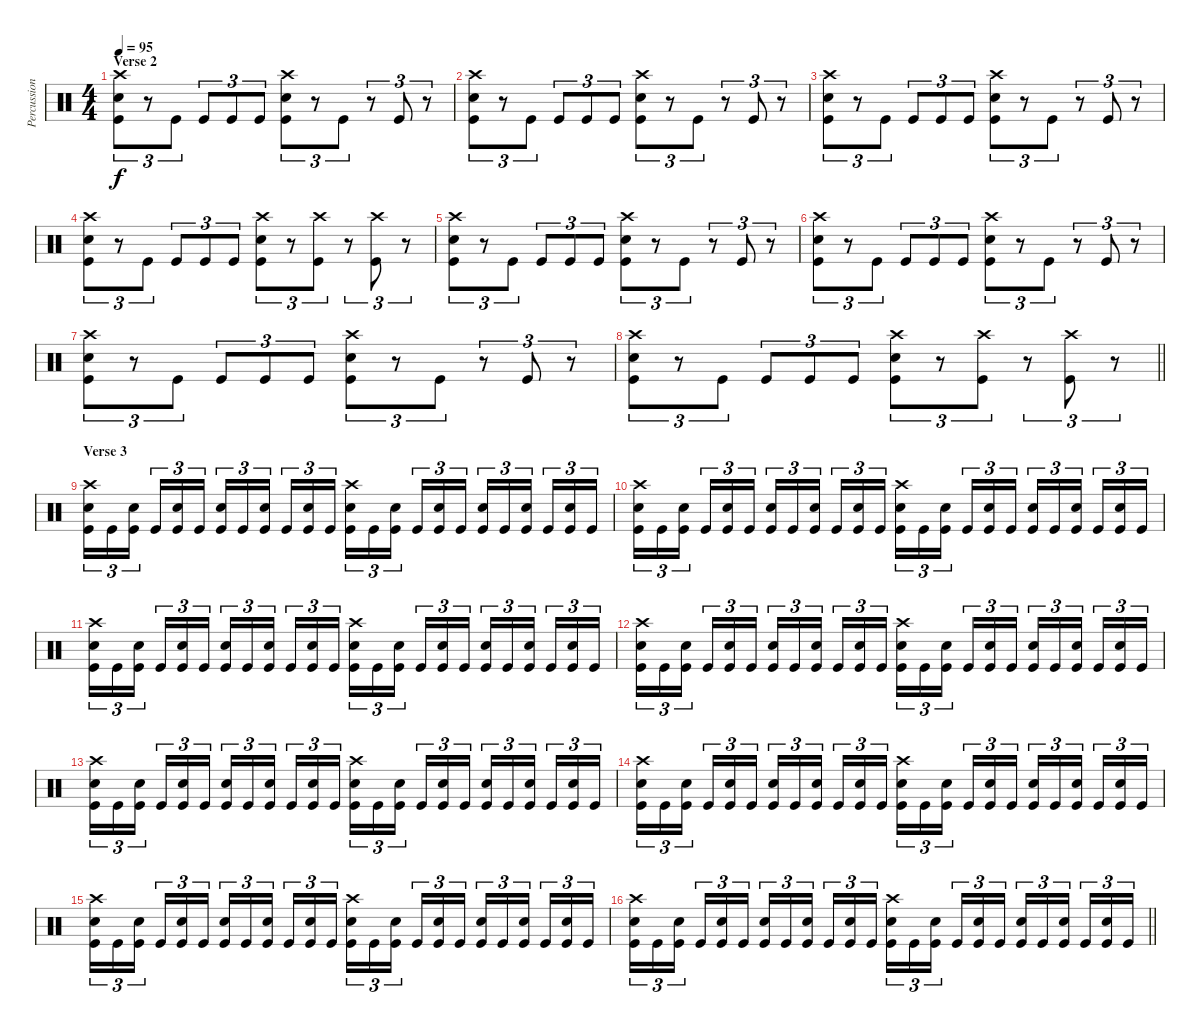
\track ("Percussion" "Percussion") {instrument percussion}
\staff {score}
\articulation defaults
\ts (4 4)
\section ("" "Verse 2")
\tempo 95
\clef neutral
\ks c
("Crash high (hit)" "Snare (hit) 2" "Kick (hit)").8{tu (3 2) dy f} r.8{tu (3 2)} "Kick (hit)".8{tu (3 2)} "Kick (hit)".8{tu (3 2)} "Kick (hit)".8{tu (3 2)} "Kick (hit)".8{tu (3 2)} ("Crash high (hit)" "Snare (hit) 2" "Kick (hit)").8{tu (3 2)} r.8{tu (3 2)} "Kick (hit)".8{tu (3 2)} r.8{tu (3 2)} "Kick (hit)".8{tu (3 2)} r.8{tu (3 2)} |
("Crash high (hit)" "Snare (hit) 2" "Kick (hit)").8{tu (3 2)} r.8{tu (3 2)} "Kick (hit)".8{tu (3 2)} "Kick (hit)".8{tu (3 2)} "Kick (hit)".8{tu (3 2)} "Kick (hit)".8{tu (3 2)} ("Crash high (hit)" "Snare (hit) 2" "Kick (hit)").8{tu (3 2)} r.8{tu (3 2)} "Kick (hit)".8{tu (3 2)} r.8{tu (3 2)} "Kick (hit)".8{tu (3 2)} r.8{tu (3 2)} |
("Crash high (hit)" "Snare (hit) 2" "Kick (hit)").8{tu (3 2)} r.8{tu (3 2)} "Kick (hit)".8{tu (3 2)} "Kick (hit)".8{tu (3 2)} "Kick (hit)".8{tu (3 2)} "Kick (hit)".8{tu (3 2)} ("Crash high (hit)" "Snare (hit) 2" "Kick (hit)").8{tu (3 2)} r.8{tu (3 2)} "Kick (hit)".8{tu (3 2)} r.8{tu (3 2)} "Kick (hit)".8{tu (3 2)} r.8{tu (3 2)} |
("Crash high (hit)" "Snare (hit) 2" "Kick (hit)").8{tu (3 2)} r.8{tu (3 2)} "Kick (hit)".8{tu (3 2)} "Kick (hit)".8{tu (3 2)} "Kick (hit)".8{tu (3 2)} "Kick (hit)".8{tu (3 2)} ("Crash high (hit)" "Snare (hit) 2" "Kick (hit)").8{tu (3 2)} r.8{tu (3 2)} ("Crash high (hit)" "Kick (hit)").8{tu (3 2)} r.8{tu (3 2)} ("Crash high (hit)" "Kick (hit)").8{tu (3 2)} r.8{tu (3 2)} |
("Crash high (hit)" "Snare (hit) 2" "Kick (hit)").8{tu (3 2)} r.8{tu (3 2)} "Kick (hit)".8{tu (3 2)} "Kick (hit)".8{tu (3 2)} "Kick (hit)".8{tu (3 2)} "Kick (hit)".8{tu (3 2)} ("Crash high (hit)" "Snare (hit) 2" "Kick (hit)").8{tu (3 2)} r.8{tu (3 2)} "Kick (hit)".8{tu (3 2)} r.8{tu (3 2)} "Kick (hit)".8{tu (3 2)} r.8{tu (3 2)} |
("Crash high (hit)" "Snare (hit) 2" "Kick (hit)").8{tu (3 2)} r.8{tu (3 2)} "Kick (hit)".8{tu (3 2)} "Kick (hit)".8{tu (3 2)} "Kick (hit)".8{tu (3 2)} "Kick (hit)".8{tu (3 2)} ("Crash high (hit)" "Snare (hit) 2" "Kick (hit)").8{tu (3 2)} r.8{tu (3 2)} "Kick (hit)".8{tu (3 2)} r.8{tu (3 2)} "Kick (hit)".8{tu (3 2)} r.8{tu (3 2)} |
("Crash high (hit)" "Snare (hit) 2" "Kick (hit)").8{tu (3 2)} r.8{tu (3 2)} "Kick (hit)".8{tu (3 2)} "Kick (hit)".8{tu (3 2)} "Kick (hit)".8{tu (3 2)} "Kick (hit)".8{tu (3 2)} ("Crash high (hit)" "Snare (hit) 2" "Kick (hit)").8{tu (3 2)} r.8{tu (3 2)} "Kick (hit)".8{tu (3 2)} r.8{tu (3 2)} "Kick (hit)".8{tu (3 2)} r.8{tu (3 2)} |
\barLineRight lightlight
("Crash high (hit)" "Snare (hit) 2" "Kick (hit)").8{tu (3 2)} r.8{tu (3 2)} "Kick (hit)".8{tu (3 2)} "Kick (hit)".8{tu (3 2)} "Kick (hit)".8{tu (3 2)} "Kick (hit)".8{tu (3 2)} ("Crash high (hit)" "Snare (hit) 2" "Kick (hit)").8{tu (3 2)} r.8{tu (3 2)} ("Crash high (hit)" "Kick (hit)").8{tu (3 2)} r.8{tu (3 2)} ("Crash high (hit)" "Kick (hit)").8{tu (3 2)} r.8{tu (3 2)} |
\section ("" "Verse 3")
("Crash high (hit)" "Snare (hit) 2" "Kick (hit)").16{tu (3 2)} "Kick (hit)".16{tu (3 2)} ("Snare (hit) 2" "Kick (hit)").16{tu (3 2) beam splitsecondary} "Kick (hit)".16{tu (3 2)} ("Snare (hit) 2" "Kick (hit)").16{tu (3 2)} "Kick (hit)".16{tu (3 2)} ("Snare (hit) 2" "Kick (hit)").16{tu (3 2)} "Kick (hit)".16{tu (3 2)} ("Snare (hit) 2" "Kick (hit)").16{tu (3 2) beam splitsecondary} "Kick (hit)".16{tu (3 2)} ("Snare (hit) 2" "Kick (hit)").16{tu (3 2)} "Kick (hit)".16{tu (3 2)} ("Crash high (hit)" "Snare (hit) 2" "Kick (hit)").16{tu (3 2)} "Kick (hit)".16{tu (3 2)} ("Snare (hit) 2" "Kick (hit)").16{tu (3 2) beam splitsecondary} "Kick (hit)".16{tu (3 2)} ("Snare (hit) 2" "Kick (hit)").16{tu (3 2)} "Kick (hit)".16{tu (3 2)} ("Snare (hit) 2" "Kick (hit)").16{tu (3 2)} "Kick (hit)".16{tu (3 2)} ("Snare (hit) 2" "Kick (hit)").16{tu (3 2) beam splitsecondary} "Kick (hit)".16{tu (3 2)} ("Snare (hit) 2" "Kick (hit)").16{tu (3 2)} "Kick (hit)".16{tu (3 2)} |
("Crash high (hit)" "Snare (hit) 2" "Kick (hit)").16{tu (3 2)} "Kick (hit)".16{tu (3 2)} ("Snare (hit) 2" "Kick (hit)").16{tu (3 2) beam splitsecondary} "Kick (hit)".16{tu (3 2)} ("Snare (hit) 2" "Kick (hit)").16{tu (3 2)} "Kick (hit)".16{tu (3 2)} ("Snare (hit) 2" "Kick (hit)").16{tu (3 2)} "Kick (hit)".16{tu (3 2)} ("Snare (hit) 2" "Kick (hit)").16{tu (3 2) beam splitsecondary} "Kick (hit)".16{tu (3 2)} ("Snare (hit) 2" "Kick (hit)").16{tu (3 2)} "Kick (hit)".16{tu (3 2)} ("Crash high (hit)" "Snare (hit) 2" "Kick (hit)").16{tu (3 2)} "Kick (hit)".16{tu (3 2)} ("Snare (hit) 2" "Kick (hit)").16{tu (3 2) beam splitsecondary} "Kick (hit)".16{tu (3 2)} ("Snare (hit) 2" "Kick (hit)").16{tu (3 2)} "Kick (hit)".16{tu (3 2)} ("Snare (hit) 2" "Kick (hit)").16{tu (3 2)} "Kick (hit)".16{tu (3 2)} ("Snare (hit) 2" "Kick (hit)").16{tu (3 2) beam splitsecondary} "Kick (hit)".16{tu (3 2)} ("Snare (hit) 2" "Kick (hit)").16{tu (3 2)} "Kick (hit)".16{tu (3 2)} |
("Crash high (hit)" "Snare (hit) 2" "Kick (hit)").16{tu (3 2)} "Kick (hit)".16{tu (3 2)} ("Snare (hit) 2" "Kick (hit)").16{tu (3 2) beam splitsecondary} "Kick (hit)".16{tu (3 2)} ("Snare (hit) 2" "Kick (hit)").16{tu (3 2)} "Kick (hit)".16{tu (3 2)} ("Snare (hit) 2" "Kick (hit)").16{tu (3 2)} "Kick (hit)".16{tu (3 2)} ("Snare (hit) 2" "Kick (hit)").16{tu (3 2) beam splitsecondary} "Kick (hit)".16{tu (3 2)} ("Snare (hit) 2" "Kick (hit)").16{tu (3 2)} "Kick (hit)".16{tu (3 2)} ("Crash high (hit)" "Snare (hit) 2" "Kick (hit)").16{tu (3 2)} "Kick (hit)".16{tu (3 2)} ("Snare (hit) 2" "Kick (hit)").16{tu (3 2) beam splitsecondary} "Kick (hit)".16{tu (3 2)} ("Snare (hit) 2" "Kick (hit)").16{tu (3 2)} "Kick (hit)".16{tu (3 2)} ("Snare (hit) 2" "Kick (hit)").16{tu (3 2)} "Kick (hit)".16{tu (3 2)} ("Snare (hit) 2" "Kick (hit)").16{tu (3 2) beam splitsecondary} "Kick (hit)".16{tu (3 2)} ("Snare (hit) 2" "Kick (hit)").16{tu (3 2)} "Kick (hit)".16{tu (3 2)} |
("Crash high (hit)" "Snare (hit) 2" "Kick (hit)").16{tu (3 2)} "Kick (hit)".16{tu (3 2)} ("Snare (hit) 2" "Kick (hit)").16{tu (3 2) beam splitsecondary} "Kick (hit)".16{tu (3 2)} ("Snare (hit) 2" "Kick (hit)").16{tu (3 2)} "Kick (hit)".16{tu (3 2)} ("Snare (hit) 2" "Kick (hit)").16{tu (3 2)} "Kick (hit)".16{tu (3 2)} ("Snare (hit) 2" "Kick (hit)").16{tu (3 2) beam splitsecondary} "Kick (hit)".16{tu (3 2)} ("Snare (hit) 2" "Kick (hit)").16{tu (3 2)} "Kick (hit)".16{tu (3 2)} ("Crash high (hit)" "Snare (hit) 2" "Kick (hit)").16{tu (3 2)} "Kick (hit)".16{tu (3 2)} ("Snare (hit) 2" "Kick (hit)").16{tu (3 2) beam splitsecondary} "Kick (hit)".16{tu (3 2)} ("Snare (hit) 2" "Kick (hit)").16{tu (3 2)} "Kick (hit)".16{tu (3 2)} ("Snare (hit) 2" "Kick (hit)").16{tu (3 2)} "Kick (hit)".16{tu (3 2)} ("Snare (hit) 2" "Kick (hit)").16{tu (3 2) beam splitsecondary} "Kick (hit)".16{tu (3 2)} ("Snare (hit) 2" "Kick (hit)").16{tu (3 2)} "Kick (hit)".16{tu (3 2)} |
("Crash high (hit)" "Snare (hit) 2" "Kick (hit)").16{tu (3 2)} "Kick (hit)".16{tu (3 2)} ("Snare (hit) 2" "Kick (hit)").16{tu (3 2) beam splitsecondary} "Kick (hit)".16{tu (3 2)} ("Snare (hit) 2" "Kick (hit)").16{tu (3 2)} "Kick (hit)".16{tu (3 2)} ("Snare (hit) 2" "Kick (hit)").16{tu (3 2)} "Kick (hit)".16{tu (3 2)} ("Snare (hit) 2" "Kick (hit)").16{tu (3 2) beam splitsecondary} "Kick (hit)".16{tu (3 2)} ("Snare (hit) 2" "Kick (hit)").16{tu (3 2)} "Kick (hit)".16{tu (3 2)} ("Crash high (hit)" "Snare (hit) 2" "Kick (hit)").16{tu (3 2)} "Kick (hit)".16{tu (3 2)} ("Snare (hit) 2" "Kick (hit)").16{tu (3 2) beam splitsecondary} "Kick (hit)".16{tu (3 2)} ("Snare (hit) 2" "Kick (hit)").16{tu (3 2)} "Kick (hit)".16{tu (3 2)} ("Snare (hit) 2" "Kick (hit)").16{tu (3 2)} "Kick (hit)".16{tu (3 2)} ("Snare (hit) 2" "Kick (hit)").16{tu (3 2) beam splitsecondary} "Kick (hit)".16{tu (3 2)} ("Snare (hit) 2" "Kick (hit)").16{tu (3 2)} "Kick (hit)".16{tu (3 2)} |
("Crash high (hit)" "Snare (hit) 2" "Kick (hit)").16{tu (3 2)} "Kick (hit)".16{tu (3 2)} ("Snare (hit) 2" "Kick (hit)").16{tu (3 2) beam splitsecondary} "Kick (hit)".16{tu (3 2)} ("Snare (hit) 2" "Kick (hit)").16{tu (3 2)} "Kick (hit)".16{tu (3 2)} ("Snare (hit) 2" "Kick (hit)").16{tu (3 2)} "Kick (hit)".16{tu (3 2)} ("Snare (hit) 2" "Kick (hit)").16{tu (3 2) beam splitsecondary} "Kick (hit)".16{tu (3 2)} ("Snare (hit) 2" "Kick (hit)").16{tu (3 2)} "Kick (hit)".16{tu (3 2)} ("Crash high (hit)" "Snare (hit) 2" "Kick (hit)").16{tu (3 2)} "Kick (hit)".16{tu (3 2)} ("Snare (hit) 2" "Kick (hit)").16{tu (3 2) beam splitsecondary} "Kick (hit)".16{tu (3 2)} ("Snare (hit) 2" "Kick (hit)").16{tu (3 2)} "Kick (hit)".16{tu (3 2)} ("Snare (hit) 2" "Kick (hit)").16{tu (3 2)} "Kick (hit)".16{tu (3 2)} ("Snare (hit) 2" "Kick (hit)").16{tu (3 2) beam splitsecondary} "Kick (hit)".16{tu (3 2)} ("Snare (hit) 2" "Kick (hit)").16{tu (3 2)} "Kick (hit)".16{tu (3 2)} |
("Crash high (hit)" "Snare (hit) 2" "Kick (hit)").16{tu (3 2)} "Kick (hit)".16{tu (3 2)} ("Snare (hit) 2" "Kick (hit)").16{tu (3 2) beam splitsecondary} "Kick (hit)".16{tu (3 2)} ("Snare (hit) 2" "Kick (hit)").16{tu (3 2)} "Kick (hit)".16{tu (3 2)} ("Snare (hit) 2" "Kick (hit)").16{tu (3 2)} "Kick (hit)".16{tu (3 2)} ("Snare (hit) 2" "Kick (hit)").16{tu (3 2) beam splitsecondary} "Kick (hit)".16{tu (3 2)} ("Snare (hit) 2" "Kick (hit)").16{tu (3 2)} "Kick (hit)".16{tu (3 2)} ("Crash high (hit)" "Snare (hit) 2" "Kick (hit)").16{tu (3 2)} "Kick (hit)".16{tu (3 2)} ("Snare (hit) 2" "Kick (hit)").16{tu (3 2) beam splitsecondary} "Kick (hit)".16{tu (3 2)} ("Snare (hit) 2" "Kick (hit)").16{tu (3 2)} "Kick (hit)".16{tu (3 2)} ("Snare (hit) 2" "Kick (hit)").16{tu (3 2)} "Kick (hit)".16{tu (3 2)} ("Snare (hit) 2" "Kick (hit)").16{tu (3 2) beam splitsecondary} "Kick (hit)".16{tu (3 2)} ("Snare (hit) 2" "Kick (hit)").16{tu (3 2)} "Kick (hit)".16{tu (3 2)} |
\barLineRight lightlight
("Crash high (hit)" "Snare (hit) 2" "Kick (hit)").16{tu (3 2)} "Kick (hit)".16{tu (3 2)} ("Snare (hit) 2" "Kick (hit)").16{tu (3 2) beam splitsecondary} "Kick (hit)".16{tu (3 2)} ("Snare (hit) 2" "Kick (hit)").16{tu (3 2)} "Kick (hit)".16{tu (3 2)} ("Snare (hit) 2" "Kick (hit)").16{tu (3 2)} "Kick (hit)".16{tu (3 2)} ("Snare (hit) 2" "Kick (hit)").16{tu (3 2) beam splitsecondary} "Kick (hit)".16{tu (3 2)} ("Snare (hit) 2" "Kick (hit)").16{tu (3 2)} "Kick (hit)".16{tu (3 2)} ("Crash high (hit)" "Snare (hit) 2" "Kick (hit)").16{tu (3 2)} "Kick (hit)".16{tu (3 2)} ("Snare (hit) 2" "Kick (hit)").16{tu (3 2) beam splitsecondary} "Kick (hit)".16{tu (3 2)} ("Snare (hit) 2" "Kick (hit)").16{tu (3 2)} "Kick (hit)".16{tu (3 2)} ("Snare (hit) 2" "Kick (hit)").16{tu (3 2)} "Kick (hit)".16{tu (3 2)} ("Snare (hit) 2" "Kick (hit)").16{tu (3 2) beam splitsecondary} "Kick (hit)".16{tu (3 2)} ("Snare (hit) 2" "Kick (hit)").16{tu (3 2)} "Kick (hit)".16{tu (3 2)}
